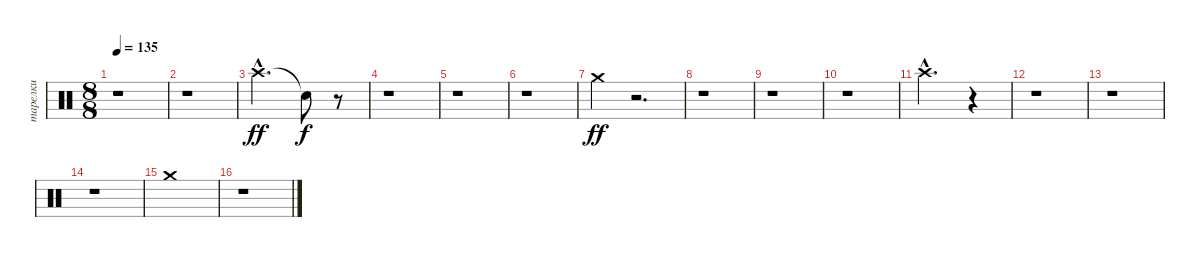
\track ("тарелки" "тарелки") {instrument percussion}
\staff {score}
\articulation defaults
\ts (8 8)
\tempo 135
\clef neutral
\ks c
r.1{dy ff} |
r.1 |
"Crash high (hit)"{hac}.2{d} "Snare (hit)"{t}.8{dy f} r.8 |
r.1 |
r.1 |
r.1 |
"Crash medium (hit)".4{dy ff} r.2{d} |
r.1 |
r.1 |
r.1 |
"Crash high (hit)"{hac}.2{d} r.4 |
r.1 |
r.1 |
r.1 |
"Crash medium (hit)".1 |
r.1
